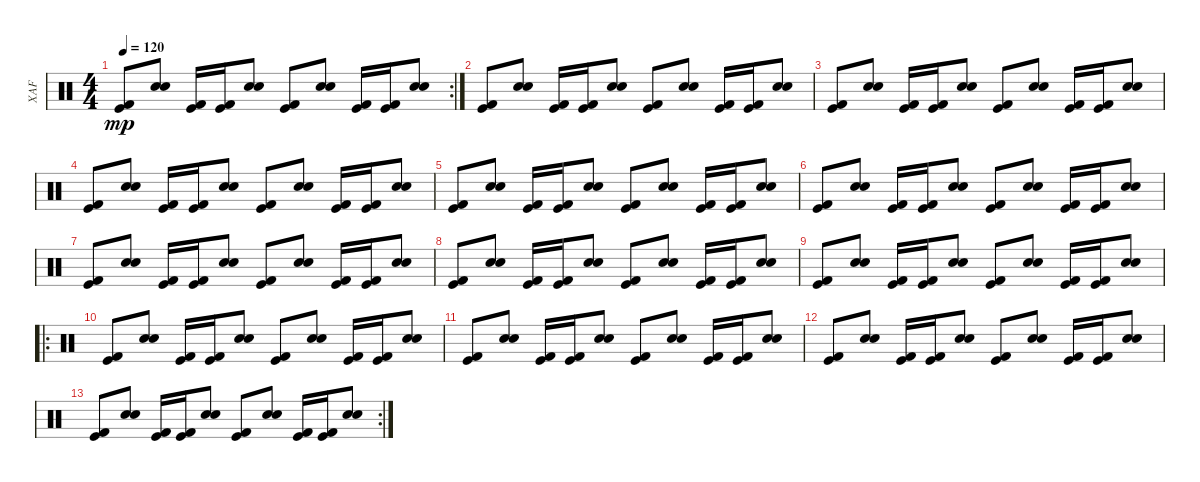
\track ("XAF" "XAF") {instrument percussion}
\staff {score}
\articulation defaults
\rc 2
\ts (4 4)
\tempo 120
\clef neutral
\ks c
("Kick (hit) 2" "Kick (hit)").8{dy mp} ("Electric Snare (hit)" "Snare (hit) 2").8 ("Kick (hit) 2" "Kick (hit)").16 ("Kick (hit) 2" "Kick (hit)").16 ("Electric Snare (hit)" "Snare (hit) 2").8 ("Kick (hit) 2" "Kick (hit)").8 ("Electric Snare (hit)" "Snare (hit) 2").8 ("Kick (hit) 2" "Kick (hit)").16 ("Kick (hit) 2" "Kick (hit)").16 ("Electric Snare (hit)" "Snare (hit) 2").8 |
("Kick (hit) 2" "Kick (hit)").8 ("Electric Snare (hit)" "Snare (hit) 2").8 ("Kick (hit) 2" "Kick (hit)").16 ("Kick (hit) 2" "Kick (hit)").16 ("Electric Snare (hit)" "Snare (hit) 2").8 ("Kick (hit) 2" "Kick (hit)").8 ("Electric Snare (hit)" "Snare (hit) 2").8 ("Kick (hit) 2" "Kick (hit)").16 ("Kick (hit) 2" "Kick (hit)").16 ("Electric Snare (hit)" "Snare (hit) 2").8 |
("Kick (hit) 2" "Kick (hit)").8 ("Electric Snare (hit)" "Snare (hit) 2").8 ("Kick (hit) 2" "Kick (hit)").16 ("Kick (hit) 2" "Kick (hit)").16 ("Electric Snare (hit)" "Snare (hit) 2").8 ("Kick (hit) 2" "Kick (hit)").8 ("Electric Snare (hit)" "Snare (hit) 2").8 ("Kick (hit) 2" "Kick (hit)").16 ("Kick (hit) 2" "Kick (hit)").16 ("Electric Snare (hit)" "Snare (hit) 2").8 |
("Kick (hit) 2" "Kick (hit)").8 ("Electric Snare (hit)" "Snare (hit) 2").8 ("Kick (hit) 2" "Kick (hit)").16 ("Kick (hit) 2" "Kick (hit)").16 ("Electric Snare (hit)" "Snare (hit) 2").8 ("Kick (hit) 2" "Kick (hit)").8 ("Electric Snare (hit)" "Snare (hit) 2").8 ("Kick (hit) 2" "Kick (hit)").16 ("Kick (hit) 2" "Kick (hit)").16 ("Electric Snare (hit)" "Snare (hit) 2").8 |
("Kick (hit) 2" "Kick (hit)").8 ("Electric Snare (hit)" "Snare (hit) 2").8 ("Kick (hit) 2" "Kick (hit)").16 ("Kick (hit) 2" "Kick (hit)").16 ("Electric Snare (hit)" "Snare (hit) 2").8 ("Kick (hit) 2" "Kick (hit)").8 ("Electric Snare (hit)" "Snare (hit) 2").8 ("Kick (hit) 2" "Kick (hit)").16 ("Kick (hit) 2" "Kick (hit)").16 ("Electric Snare (hit)" "Snare (hit) 2").8 |
("Kick (hit) 2" "Kick (hit)").8 ("Electric Snare (hit)" "Snare (hit) 2").8 ("Kick (hit) 2" "Kick (hit)").16 ("Kick (hit) 2" "Kick (hit)").16 ("Electric Snare (hit)" "Snare (hit) 2").8 ("Kick (hit) 2" "Kick (hit)").8 ("Electric Snare (hit)" "Snare (hit) 2").8 ("Kick (hit) 2" "Kick (hit)").16 ("Kick (hit) 2" "Kick (hit)").16 ("Electric Snare (hit)" "Snare (hit) 2").8 |
("Kick (hit) 2" "Kick (hit)").8 ("Electric Snare (hit)" "Snare (hit) 2").8 ("Kick (hit) 2" "Kick (hit)").16 ("Kick (hit) 2" "Kick (hit)").16 ("Electric Snare (hit)" "Snare (hit) 2").8 ("Kick (hit) 2" "Kick (hit)").8 ("Electric Snare (hit)" "Snare (hit) 2").8 ("Kick (hit) 2" "Kick (hit)").16 ("Kick (hit) 2" "Kick (hit)").16 ("Electric Snare (hit)" "Snare (hit) 2").8 |
("Kick (hit) 2" "Kick (hit)").8 ("Electric Snare (hit)" "Snare (hit) 2").8 ("Kick (hit) 2" "Kick (hit)").16 ("Kick (hit) 2" "Kick (hit)").16 ("Electric Snare (hit)" "Snare (hit) 2").8 ("Kick (hit) 2" "Kick (hit)").8 ("Electric Snare (hit)" "Snare (hit) 2").8 ("Kick (hit) 2" "Kick (hit)").16 ("Kick (hit) 2" "Kick (hit)").16 ("Electric Snare (hit)" "Snare (hit) 2").8 |
("Kick (hit) 2" "Kick (hit)").8 ("Electric Snare (hit)" "Snare (hit) 2").8 ("Kick (hit) 2" "Kick (hit)").16 ("Kick (hit) 2" "Kick (hit)").16 ("Electric Snare (hit)" "Snare (hit) 2").8 ("Kick (hit) 2" "Kick (hit)").8 ("Electric Snare (hit)" "Snare (hit) 2").8 ("Kick (hit) 2" "Kick (hit)").16 ("Kick (hit) 2" "Kick (hit)").16 ("Electric Snare (hit)" "Snare (hit) 2").8 |
\ro
("Kick (hit) 2" "Kick (hit)").8 ("Electric Snare (hit)" "Snare (hit) 2").8 ("Kick (hit) 2" "Kick (hit)").16 ("Kick (hit) 2" "Kick (hit)").16 ("Electric Snare (hit)" "Snare (hit) 2").8 ("Kick (hit) 2" "Kick (hit)").8 ("Electric Snare (hit)" "Snare (hit) 2").8 ("Kick (hit) 2" "Kick (hit)").16 ("Kick (hit) 2" "Kick (hit)").16 ("Electric Snare (hit)" "Snare (hit) 2").8 |
("Kick (hit) 2" "Kick (hit)").8 ("Electric Snare (hit)" "Snare (hit) 2").8 ("Kick (hit) 2" "Kick (hit)").16 ("Kick (hit) 2" "Kick (hit)").16 ("Electric Snare (hit)" "Snare (hit) 2").8 ("Kick (hit) 2" "Kick (hit)").8 ("Electric Snare (hit)" "Snare (hit) 2").8 ("Kick (hit) 2" "Kick (hit)").16 ("Kick (hit) 2" "Kick (hit)").16 ("Electric Snare (hit)" "Snare (hit) 2").8 |
("Kick (hit) 2" "Kick (hit)").8 ("Electric Snare (hit)" "Snare (hit) 2").8 ("Kick (hit) 2" "Kick (hit)").16 ("Kick (hit) 2" "Kick (hit)").16 ("Electric Snare (hit)" "Snare (hit) 2").8 ("Kick (hit) 2" "Kick (hit)").8 ("Electric Snare (hit)" "Snare (hit) 2").8 ("Kick (hit) 2" "Kick (hit)").16 ("Kick (hit) 2" "Kick (hit)").16 ("Electric Snare (hit)" "Snare (hit) 2").8 |
\rc 2
("Kick (hit) 2" "Kick (hit)").8 ("Electric Snare (hit)" "Snare (hit) 2").8 ("Kick (hit) 2" "Kick (hit)").16 ("Kick (hit) 2" "Kick (hit)").16 ("Electric Snare (hit)" "Snare (hit) 2").8 ("Kick (hit) 2" "Kick (hit)").8 ("Electric Snare (hit)" "Snare (hit) 2").8 ("Kick (hit) 2" "Kick (hit)").16 ("Kick (hit) 2" "Kick (hit)").16 ("Electric Snare (hit)" "Snare (hit) 2").8
